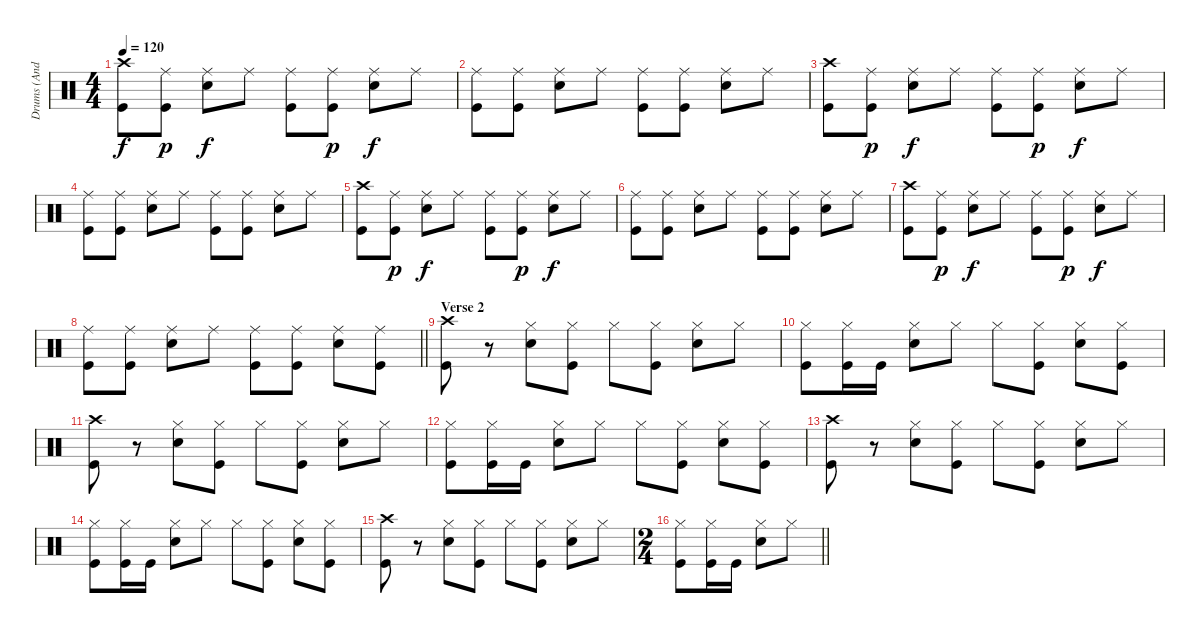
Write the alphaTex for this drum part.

\track ("Drums (Andy Parker)" "Drums (And") {instrument percussion}
\staff {score}
\articulation defaults
\ts (4 4)
\tempo 120
\clef neutral
\ks c
("Crash high (hit)" "Kick (hit)").8{dy f} ("Ride (middle)" "Kick (hit)").8{dy p} ("Ride (middle)" "Electric Snare (hit)").8{dy f} "Ride (middle)".8 ("Ride (middle)" "Kick (hit)").8 ("Ride (middle)" "Kick (hit)").8{dy p} ("Ride (middle)" "Electric Snare (hit)").8{dy f} "Ride (middle)".8 |
("Ride (middle)" "Kick (hit)").8 ("Ride (middle)" "Kick (hit)").8 ("Ride (middle)" "Electric Snare (hit)").8 "Ride (middle)".8 ("Ride (middle)" "Kick (hit)").8 ("Ride (middle)" "Kick (hit)").8 ("Ride (middle)" "Electric Snare (hit)").8 "Ride (middle)".8 |
("Crash high (hit)" "Kick (hit)").8 ("Ride (middle)" "Kick (hit)").8{dy p} ("Ride (middle)" "Electric Snare (hit)").8{dy f} "Ride (middle)".8 ("Ride (middle)" "Kick (hit)").8 ("Ride (middle)" "Kick (hit)").8{dy p} ("Ride (middle)" "Electric Snare (hit)").8{dy f} "Ride (middle)".8 |
("Ride (middle)" "Kick (hit)").8 ("Ride (middle)" "Kick (hit)").8 ("Ride (middle)" "Electric Snare (hit)").8 "Ride (middle)".8 ("Ride (middle)" "Kick (hit)").8 ("Ride (middle)" "Kick (hit)").8 ("Ride (middle)" "Electric Snare (hit)").8 "Ride (middle)".8 |
("Crash high (hit)" "Kick (hit)").8 ("Ride (middle)" "Kick (hit)").8{dy p} ("Ride (middle)" "Electric Snare (hit)").8{dy f} "Ride (middle)".8 ("Ride (middle)" "Kick (hit)").8 ("Ride (middle)" "Kick (hit)").8{dy p} ("Ride (middle)" "Electric Snare (hit)").8{dy f} "Ride (middle)".8 |
("Ride (middle)" "Kick (hit)").8 ("Ride (middle)" "Kick (hit)").8 ("Ride (middle)" "Electric Snare (hit)").8 "Ride (middle)".8 ("Ride (middle)" "Kick (hit)").8 ("Ride (middle)" "Kick (hit)").8 ("Ride (middle)" "Electric Snare (hit)").8 "Ride (middle)".8 |
("Crash high (hit)" "Kick (hit)").8 ("Ride (middle)" "Kick (hit)").8{dy p} ("Ride (middle)" "Electric Snare (hit)").8{dy f} "Ride (middle)".8 ("Ride (middle)" "Kick (hit)").8 ("Ride (middle)" "Kick (hit)").8{dy p} ("Ride (middle)" "Electric Snare (hit)").8{dy f} "Ride (middle)".8 |
\barLineRight lightlight
("Ride (middle)" "Kick (hit)").8 ("Ride (middle)" "Kick (hit)").8 ("Ride (middle)" "Electric Snare (hit)").8 "Ride (middle)".8 ("Ride (middle)" "Kick (hit)").8 ("Ride (middle)" "Kick (hit)").8 ("Ride (middle)" "Electric Snare (hit)").8 ("Ride (middle)" "Kick (hit)").8 |
\section ("" "Verse 2")
("Crash high (hit)" "Kick (hit)").8 r.8 ("Hi-Hat (closed)" "Electric Snare (hit)").8 ("Hi-Hat (closed)" "Kick (hit)").8 "Hi-Hat (closed)".8 ("Hi-Hat (closed)" "Kick (hit)").8 ("Hi-Hat (closed)" "Electric Snare (hit)").8 "Hi-Hat (closed)".8 |
("Hi-Hat (closed)" "Kick (hit)").8 ("Hi-Hat (closed)" "Kick (hit)").16 "Kick (hit)".16 ("Hi-Hat (closed)" "Electric Snare (hit)").8 "Hi-Hat (closed)".8 "Hi-Hat (closed)".8 ("Hi-Hat (closed)" "Kick (hit)").8 ("Hi-Hat (closed)" "Electric Snare (hit)").8 ("Hi-Hat (closed)" "Kick (hit)").8 |
("Crash high (hit)" "Kick (hit)").8 r.8 ("Hi-Hat (closed)" "Electric Snare (hit)").8 ("Hi-Hat (closed)" "Kick (hit)").8 "Hi-Hat (closed)".8 ("Hi-Hat (closed)" "Kick (hit)").8 ("Hi-Hat (closed)" "Electric Snare (hit)").8 "Hi-Hat (closed)".8 |
("Hi-Hat (closed)" "Kick (hit)").8 ("Hi-Hat (closed)" "Kick (hit)").16 "Kick (hit)".16 ("Hi-Hat (closed)" "Electric Snare (hit)").8 "Hi-Hat (closed)".8 "Hi-Hat (closed)".8 ("Hi-Hat (closed)" "Kick (hit)").8 ("Hi-Hat (closed)" "Electric Snare (hit)").8 ("Hi-Hat (closed)" "Kick (hit)").8 |
("Crash high (hit)" "Kick (hit)").8 r.8 ("Hi-Hat (closed)" "Electric Snare (hit)").8 ("Hi-Hat (closed)" "Kick (hit)").8 "Hi-Hat (closed)".8 ("Hi-Hat (closed)" "Kick (hit)").8 ("Hi-Hat (closed)" "Electric Snare (hit)").8 "Hi-Hat (closed)".8 |
("Hi-Hat (closed)" "Kick (hit)").8 ("Hi-Hat (closed)" "Kick (hit)").16 "Kick (hit)".16 ("Hi-Hat (closed)" "Electric Snare (hit)").8 "Hi-Hat (closed)".8 "Hi-Hat (closed)".8 ("Hi-Hat (closed)" "Kick (hit)").8 ("Hi-Hat (closed)" "Electric Snare (hit)").8 ("Hi-Hat (closed)" "Kick (hit)").8 |
("Crash high (hit)" "Kick (hit)").8 r.8 ("Hi-Hat (closed)" "Electric Snare (hit)").8 ("Hi-Hat (closed)" "Kick (hit)").8 "Hi-Hat (closed)".8 ("Hi-Hat (closed)" "Kick (hit)").8 ("Hi-Hat (closed)" "Electric Snare (hit)").8 "Hi-Hat (closed)".8 |
\ts (2 4)
\barLineRight lightlight
("Hi-Hat (closed)" "Kick (hit)").8 ("Hi-Hat (closed)" "Kick (hit)").16 "Kick (hit)".16 ("Hi-Hat (closed)" "Electric Snare (hit)").8 "Hi-Hat (closed)".8
